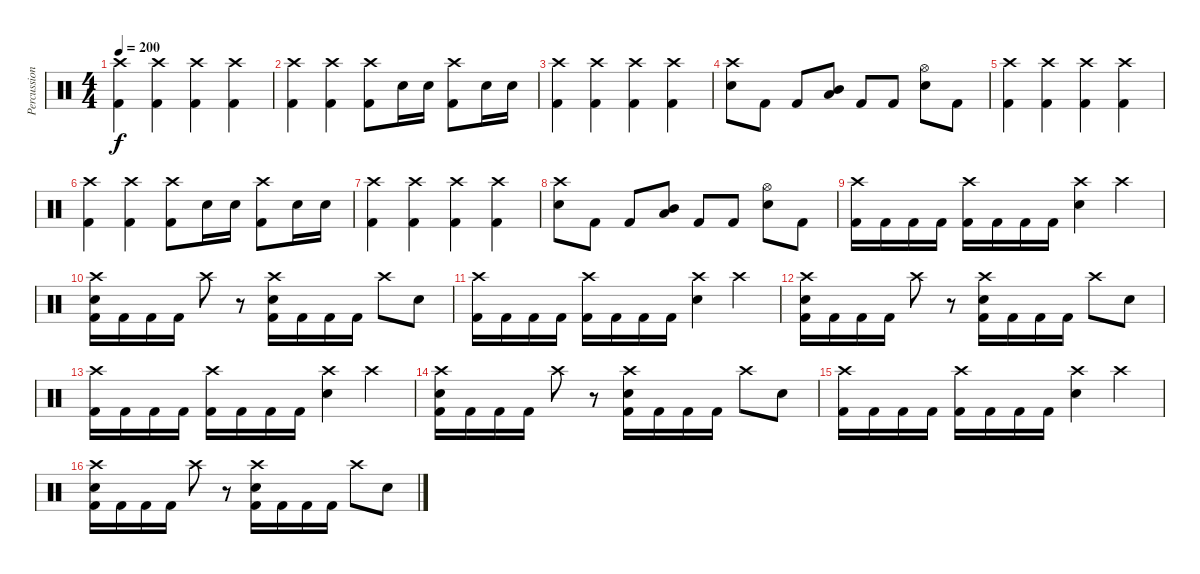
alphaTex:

\track ("Percussion" "Percussion") {instrument percussion}
\staff {score}
\articulation defaults
\ts (4 4)
\tempo 200
\clef neutral
\ks c
("Crash high (hit)" "Kick (hit) 2").4{dy f} ("Crash high (hit)" "Kick (hit) 2").4 ("Crash high (hit)" "Kick (hit) 2").4 ("Crash high (hit)" "Kick (hit) 2").4 |
("Crash high (hit)" "Kick (hit) 2").4 ("Crash high (hit)" "Kick (hit) 2").4 ("Crash high (hit)" "Kick (hit) 2").8 "Electric Snare (hit)".16 "Electric Snare (hit)".16 ("Crash high (hit)" "Kick (hit) 2").8 "Electric Snare (hit)".16 "Electric Snare (hit)".16 |
("Crash high (hit)" "Kick (hit) 2").4 ("Crash high (hit)" "Kick (hit) 2").4 ("Crash high (hit)" "Kick (hit) 2").4 ("Crash high (hit)" "Kick (hit) 2").4 |
("Crash high (hit)" "Electric Snare (hit)").8 "Kick (hit) 2".8 "Kick (hit) 2".8 ("Mid Tom (hit)" "Low Tom (hit)").8 "Kick (hit) 2".8 "Kick (hit) 2".8 ("Hi-Hat (open)" "Electric Snare (hit)").8 "Kick (hit) 2".8 |
("Crash high (hit)" "Kick (hit) 2").4 ("Crash high (hit)" "Kick (hit) 2").4 ("Crash high (hit)" "Kick (hit) 2").4 ("Crash high (hit)" "Kick (hit) 2").4 |
("Crash high (hit)" "Kick (hit) 2").4 ("Crash high (hit)" "Kick (hit) 2").4 ("Crash high (hit)" "Kick (hit) 2").8 "Electric Snare (hit)".16 "Electric Snare (hit)".16 ("Crash high (hit)" "Kick (hit) 2").8 "Electric Snare (hit)".16 "Electric Snare (hit)".16 |
("Crash high (hit)" "Kick (hit) 2").4 ("Crash high (hit)" "Kick (hit) 2").4 ("Crash high (hit)" "Kick (hit) 2").4 ("Crash high (hit)" "Kick (hit) 2").4 |
("Crash high (hit)" "Electric Snare (hit)").8 "Kick (hit) 2".8 "Kick (hit) 2".8 ("Mid Tom (hit)" "Low Tom (hit)").8 "Kick (hit) 2".8 "Kick (hit) 2".8 ("Hi-Hat (open)" "Electric Snare (hit)").8 "Kick (hit) 2".8 |
("Crash high (hit)" "Kick (hit) 2").16 "Kick (hit) 2".16 "Kick (hit) 2".16 "Kick (hit) 2".16 ("Crash high (hit)" "Kick (hit) 2").16 "Kick (hit) 2".16 "Kick (hit) 2".16 "Kick (hit) 2".16 ("Crash high (hit)" "Electric Snare (hit)").4 "Crash high (hit)".4 |
("Crash high (hit)" "Electric Snare (hit)" "Kick (hit) 2").16 "Kick (hit) 2".16 "Kick (hit) 2".16 "Kick (hit) 2".16 "Crash high (hit)".8 r.8 ("Crash high (hit)" "Electric Snare (hit)" "Kick (hit) 2").16 "Kick (hit) 2".16 "Kick (hit) 2".16 "Kick (hit) 2".16 "Crash high (hit)".8 "Electric Snare (hit)".8 |
("Crash high (hit)" "Kick (hit) 2").16 "Kick (hit) 2".16 "Kick (hit) 2".16 "Kick (hit) 2".16 ("Crash high (hit)" "Kick (hit) 2").16 "Kick (hit) 2".16 "Kick (hit) 2".16 "Kick (hit) 2".16 ("Crash high (hit)" "Electric Snare (hit)").4 "Crash high (hit)".4 |
("Crash high (hit)" "Electric Snare (hit)" "Kick (hit) 2").16 "Kick (hit) 2".16 "Kick (hit) 2".16 "Kick (hit) 2".16 "Crash high (hit)".8 r.8 ("Crash high (hit)" "Electric Snare (hit)" "Kick (hit) 2").16 "Kick (hit) 2".16 "Kick (hit) 2".16 "Kick (hit) 2".16 "Crash high (hit)".8 "Electric Snare (hit)".8 |
("Crash high (hit)" "Kick (hit) 2").16 "Kick (hit) 2".16 "Kick (hit) 2".16 "Kick (hit) 2".16 ("Crash high (hit)" "Kick (hit) 2").16 "Kick (hit) 2".16 "Kick (hit) 2".16 "Kick (hit) 2".16 ("Crash high (hit)" "Electric Snare (hit)").4 "Crash high (hit)".4 |
("Crash high (hit)" "Electric Snare (hit)" "Kick (hit) 2").16 "Kick (hit) 2".16 "Kick (hit) 2".16 "Kick (hit) 2".16 "Crash high (hit)".8 r.8 ("Crash high (hit)" "Electric Snare (hit)" "Kick (hit) 2").16 "Kick (hit) 2".16 "Kick (hit) 2".16 "Kick (hit) 2".16 "Crash high (hit)".8 "Electric Snare (hit)".8 |
("Crash high (hit)" "Kick (hit) 2").16 "Kick (hit) 2".16 "Kick (hit) 2".16 "Kick (hit) 2".16 ("Crash high (hit)" "Kick (hit) 2").16 "Kick (hit) 2".16 "Kick (hit) 2".16 "Kick (hit) 2".16 ("Crash high (hit)" "Electric Snare (hit)").4 "Crash high (hit)".4 |
("Crash high (hit)" "Electric Snare (hit)" "Kick (hit) 2").16 "Kick (hit) 2".16 "Kick (hit) 2".16 "Kick (hit) 2".16 "Crash high (hit)".8 r.8 ("Crash high (hit)" "Electric Snare (hit)" "Kick (hit) 2").16 "Kick (hit) 2".16 "Kick (hit) 2".16 "Kick (hit) 2".16 "Crash high (hit)".8 "Electric Snare (hit)".8
